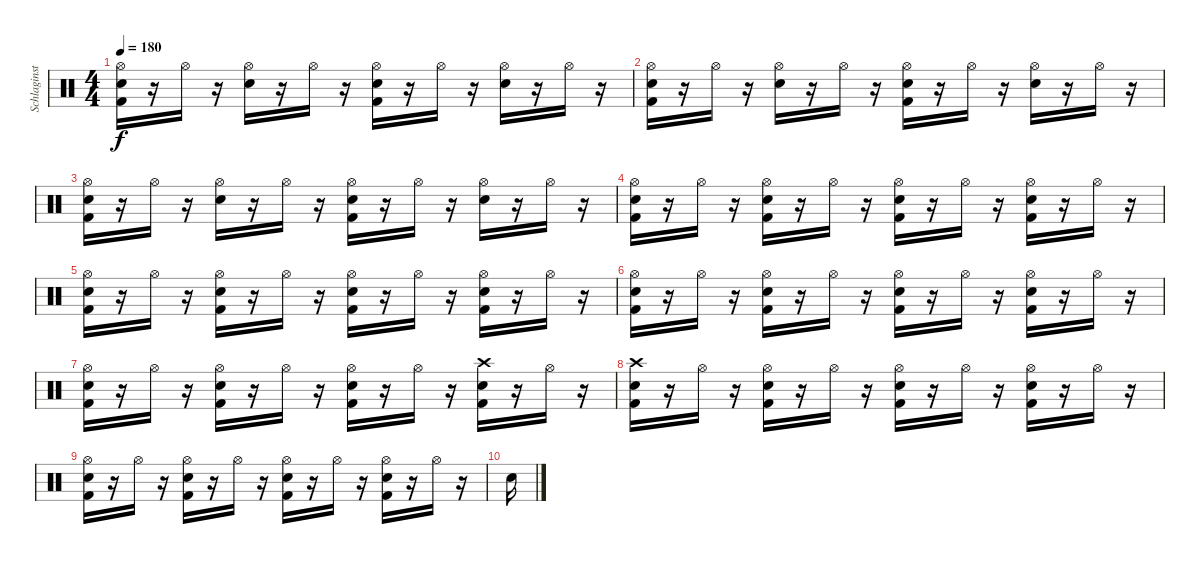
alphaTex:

\track ("Schlaginstrumente - Auswahl" "Schlaginst") {instrument percussion}
\staff {score}
\articulation defaults
\ts (4 4)
\tempo 180
\clef neutral
\ks c
("Hi-Hat (open)" "Snare (hit) 2" "Kick (hit) 2").16{dy f} r.16 "Hi-Hat (open)".16 r.16 ("Hi-Hat (open)" "Snare (hit) 2").16 r.16 "Hi-Hat (open)".16 r.16 ("Hi-Hat (open)" "Snare (hit) 2" "Kick (hit) 2").16 r.16 "Hi-Hat (open)".16 r.16 ("Hi-Hat (open)" "Snare (hit) 2").16 r.16 "Hi-Hat (open)".16 r.16 |
("Hi-Hat (open)" "Snare (hit) 2" "Kick (hit) 2").16 r.16 "Hi-Hat (open)".16 r.16 ("Hi-Hat (open)" "Snare (hit) 2").16 r.16 "Hi-Hat (open)".16 r.16 ("Hi-Hat (open)" "Snare (hit) 2" "Kick (hit) 2").16 r.16 "Hi-Hat (open)".16 r.16 ("Hi-Hat (open)" "Snare (hit) 2").16 r.16 "Hi-Hat (open)".16 r.16 |
("Hi-Hat (open)" "Snare (hit) 2" "Kick (hit) 2").16 r.16 "Hi-Hat (open)".16 r.16 ("Hi-Hat (open)" "Snare (hit) 2").16 r.16 "Hi-Hat (open)".16 r.16 ("Hi-Hat (open)" "Snare (hit) 2" "Kick (hit) 2").16 r.16 "Hi-Hat (open)".16 r.16 ("Hi-Hat (open)" "Snare (hit) 2").16 r.16 "Hi-Hat (open)".16 r.16 |
("Hi-Hat (open)" "Snare (hit) 2" "Kick (hit) 2").16 r.16 "Hi-Hat (open)".16 r.16 ("Hi-Hat (open)" "Snare (hit) 2" "Kick (hit) 2").16 r.16 "Hi-Hat (open)".16 r.16 ("Hi-Hat (open)" "Snare (hit) 2" "Kick (hit) 2").16 r.16 "Hi-Hat (open)".16 r.16 ("Hi-Hat (open)" "Snare (hit) 2" "Kick (hit) 2").16 r.16 "Hi-Hat (open)".16 r.16 |
("Hi-Hat (open)" "Snare (hit) 2" "Kick (hit) 2").16 r.16 "Hi-Hat (open)".16 r.16 ("Hi-Hat (open)" "Snare (hit) 2" "Kick (hit) 2").16 r.16 "Hi-Hat (open)".16 r.16 ("Hi-Hat (open)" "Snare (hit) 2" "Kick (hit) 2").16 r.16 "Hi-Hat (open)".16 r.16 ("Hi-Hat (open)" "Snare (hit) 2" "Kick (hit) 2").16 r.16 "Hi-Hat (open)".16 r.16 |
("Hi-Hat (open)" "Snare (hit) 2" "Kick (hit) 2").16 r.16 "Hi-Hat (open)".16 r.16 ("Hi-Hat (open)" "Snare (hit) 2" "Kick (hit) 2").16 r.16 "Hi-Hat (open)".16 r.16 ("Hi-Hat (open)" "Snare (hit) 2" "Kick (hit) 2").16 r.16 "Hi-Hat (open)".16 r.16 ("Hi-Hat (open)" "Snare (hit) 2" "Kick (hit) 2").16 r.16 "Hi-Hat (open)".16 r.16 |
("Hi-Hat (open)" "Snare (hit) 2" "Kick (hit) 2").16 r.16 "Hi-Hat (open)".16 r.16 ("Hi-Hat (open)" "Snare (hit) 2" "Kick (hit) 2").16 r.16 "Hi-Hat (open)".16 r.16 ("Hi-Hat (open)" "Snare (hit) 2" "Kick (hit) 2").16 r.16 "Hi-Hat (open)".16 r.16 ("Crash high (hit)" "Snare (hit) 2" "Kick (hit) 2").16 r.16 "Hi-Hat (open)".16 r.16 |
("Crash high (hit)" "Snare (hit) 2" "Kick (hit) 2").16 r.16 "Hi-Hat (open)".16 r.16 ("Hi-Hat (open)" "Snare (hit) 2" "Kick (hit) 2").16 r.16 "Hi-Hat (open)".16 r.16 ("Hi-Hat (open)" "Snare (hit) 2" "Kick (hit) 2").16 r.16 "Hi-Hat (open)".16 r.16 ("Hi-Hat (open)" "Snare (hit) 2" "Kick (hit) 2").16 r.16 "Hi-Hat (open)".16 r.16 |
("Hi-Hat (open)" "Snare (hit) 2" "Kick (hit) 2").16 r.16 "Hi-Hat (open)".16 r.16 ("Hi-Hat (open)" "Snare (hit) 2" "Kick (hit) 2").16 r.16 "Hi-Hat (open)".16 r.16 ("Hi-Hat (open)" "Snare (hit) 2" "Kick (hit) 2").16 r.16 "Hi-Hat (open)".16 r.16 ("Hi-Hat (open)" "Snare (hit) 2" "Kick (hit) 2").16 r.16 "Hi-Hat (open)".16 r.16 |
"Snare (hit) 2".16
